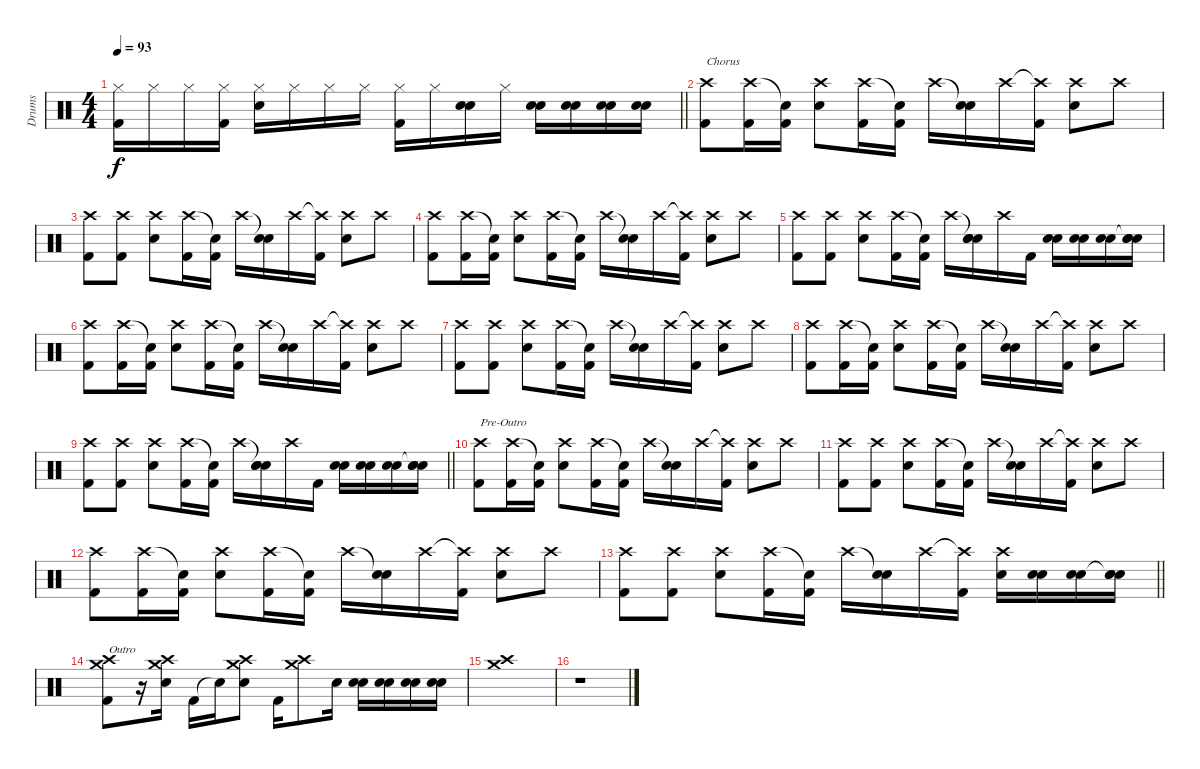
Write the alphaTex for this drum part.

\track ("Drums" "Drums") {instrument percussion}
\staff {score}
\articulation defaults
\ts (4 4)
\tempo 93
\clef neutral
\barLineRight lightlight
\ks c
("Hi-Hat (closed)" "Kick (hit) 2").16{dy f} "Hi-Hat (closed)".16 "Hi-Hat (closed)".16 ("Hi-Hat (closed)" "Kick (hit) 2").16 ("Hi-Hat (closed)" "Electric Snare (hit)").16 "Hi-Hat (closed)".16 "Hi-Hat (closed)".16 "Hi-Hat (closed)".16 ("Hi-Hat (closed)" "Kick (hit) 2").16 "Hi-Hat (closed)".16 ("Electric Snare (hit)" "Electric Snare (hit)").16 "Hi-Hat (closed)".16 ("Electric Snare (hit)" "Electric Snare (hit)").16 ("Electric Snare (hit)" "Electric Snare (hit)").16 ("Electric Snare (hit)" "Electric Snare (hit)").16 ("Electric Snare (hit)" "Electric Snare (hit)").16 |
("Crash high (hit)" "Kick (hit) 2").8{txt "Chorus"} ("Crash high (hit)" "Kick (hit) 2").16 ("Snare (hit)"{t} "Kick (hit) 2").16 ("Crash high (hit)" "Electric Snare (hit)").8 ("Crash high (hit)" "Kick (hit) 2").16 ("Snare (hit)"{t} "Kick (hit) 2").16 "Crash high (hit)".16 ("Snare (hit)"{t} "Electric Snare (hit)").16 "Crash high (hit)".16 ("Crash high (hit)"{t} "Kick (hit) 2").16 ("Crash high (hit)" "Electric Snare (hit)").8 "Crash high (hit)".8 |
("Crash high (hit)" "Kick (hit) 2").8 ("Crash high (hit)" "Kick (hit) 2").8 ("Crash high (hit)" "Electric Snare (hit)").8 ("Crash high (hit)" "Kick (hit) 2").16 ("Snare (hit)"{t} "Kick (hit) 2").16 "Crash high (hit)".16 ("Snare (hit)"{t} "Electric Snare (hit)").16 "Crash high (hit)".16 ("Crash high (hit)"{t} "Kick (hit) 2").16 ("Crash high (hit)" "Electric Snare (hit)").8 "Crash high (hit)".8 |
("Crash high (hit)" "Kick (hit) 2").8 ("Crash high (hit)" "Kick (hit) 2").16 ("Snare (hit)"{t} "Kick (hit) 2").16 ("Crash high (hit)" "Electric Snare (hit)").8 ("Crash high (hit)" "Kick (hit) 2").16 ("Snare (hit)"{t} "Kick (hit) 2").16 "Crash high (hit)".16 ("Snare (hit)"{t} "Electric Snare (hit)").16 "Crash high (hit)".16 ("Crash high (hit)"{t} "Kick (hit) 2").16 ("Crash high (hit)" "Electric Snare (hit)").8 "Crash high (hit)".8 |
("Crash high (hit)" "Kick (hit) 2").8 ("Crash high (hit)" "Kick (hit) 2").8 ("Crash high (hit)" "Electric Snare (hit)").8 ("Crash high (hit)" "Kick (hit) 2").16 ("Snare (hit)"{t} "Kick (hit) 2").16 "Crash high (hit)".16 ("Snare (hit)"{t} "Electric Snare (hit)" "Electric Snare (hit)").16 "Crash high (hit)".16 "Kick (hit) 2".16 ("Electric Snare (hit)" "Electric Snare (hit)").16 ("Electric Snare (hit)" "Electric Snare (hit)").16 ("Electric Snare (hit)" "Electric Snare (hit)").16 ("Snare (hit)"{t} "Electric Snare (hit)" "Electric Snare (hit)").16 |
("Crash high (hit)" "Kick (hit) 2").8 ("Crash high (hit)" "Kick (hit) 2").16 ("Snare (hit)"{t} "Kick (hit) 2").16 ("Crash high (hit)" "Electric Snare (hit)").8 ("Crash high (hit)" "Kick (hit) 2").16 ("Snare (hit)"{t} "Kick (hit) 2").16 "Crash high (hit)".16 ("Snare (hit)"{t} "Electric Snare (hit)").16 "Crash high (hit)".16 ("Crash high (hit)"{t} "Kick (hit) 2").16 ("Crash high (hit)" "Electric Snare (hit)").8 "Crash high (hit)".8 |
("Crash high (hit)" "Kick (hit) 2").8 ("Crash high (hit)" "Kick (hit) 2").8 ("Crash high (hit)" "Electric Snare (hit)").8 ("Crash high (hit)" "Kick (hit) 2").16 ("Snare (hit)"{t} "Kick (hit) 2").16 "Crash high (hit)".16 ("Snare (hit)"{t} "Electric Snare (hit)").16 "Crash high (hit)".16 ("Crash high (hit)"{t} "Kick (hit) 2").16 ("Crash high (hit)" "Electric Snare (hit)").8 "Crash high (hit)".8 |
("Crash high (hit)" "Kick (hit) 2").8 ("Crash high (hit)" "Kick (hit) 2").16 ("Snare (hit)"{t} "Kick (hit) 2").16 ("Crash high (hit)" "Electric Snare (hit)").8 ("Crash high (hit)" "Kick (hit) 2").16 ("Snare (hit)"{t} "Kick (hit) 2").16 "Crash high (hit)".16 ("Snare (hit)"{t} "Electric Snare (hit)").16 "Crash high (hit)".16 ("Crash high (hit)"{t} "Kick (hit) 2").16 ("Crash high (hit)" "Electric Snare (hit)").8 "Crash high (hit)".8 |
\barLineRight lightlight
("Crash high (hit)" "Kick (hit) 2").8 ("Crash high (hit)" "Kick (hit) 2").8 ("Crash high (hit)" "Electric Snare (hit)").8 ("Crash high (hit)" "Kick (hit) 2").16 ("Snare (hit)"{t} "Kick (hit) 2").16 "Crash high (hit)".16 ("Snare (hit)"{t} "Electric Snare (hit)" "Electric Snare (hit)").16 "Crash high (hit)".16 "Kick (hit) 2".16 ("Electric Snare (hit)" "Electric Snare (hit)").16 ("Electric Snare (hit)" "Electric Snare (hit)").16 ("Electric Snare (hit)" "Electric Snare (hit)").16 ("Snare (hit)"{t} "Electric Snare (hit)" "Electric Snare (hit)").16 |
("Crash high (hit)" "Kick (hit) 2").8{txt "Pre-Outro"} ("Crash high (hit)" "Kick (hit) 2").16 ("Snare (hit)"{t} "Kick (hit) 2").16 ("Crash high (hit)" "Electric Snare (hit)").8 ("Crash high (hit)" "Kick (hit) 2").16 ("Snare (hit)"{t} "Kick (hit) 2").16 "Crash high (hit)".16 ("Snare (hit)"{t} "Electric Snare (hit)").16 "Crash high (hit)".16 ("Crash high (hit)"{t} "Kick (hit) 2").16 ("Crash high (hit)" "Electric Snare (hit)").8 "Crash high (hit)".8 |
("Crash high (hit)" "Kick (hit) 2").8 ("Crash high (hit)" "Kick (hit) 2").8 ("Crash high (hit)" "Electric Snare (hit)").8 ("Crash high (hit)" "Kick (hit) 2").16 ("Snare (hit)"{t} "Kick (hit) 2").16 "Crash high (hit)".16 ("Snare (hit)"{t} "Electric Snare (hit)").16 "Crash high (hit)".16 ("Crash high (hit)"{t} "Kick (hit) 2").16 ("Crash high (hit)" "Electric Snare (hit)").8 "Crash high (hit)".8 |
("Crash high (hit)" "Kick (hit) 2").8 ("Crash high (hit)" "Kick (hit) 2").16 ("Snare (hit)"{t} "Kick (hit) 2").16 ("Crash high (hit)" "Electric Snare (hit)").8 ("Crash high (hit)" "Kick (hit) 2").16 ("Snare (hit)"{t} "Kick (hit) 2").16 "Crash high (hit)".16 ("Snare (hit)"{t} "Electric Snare (hit)").16 "Crash high (hit)".16 ("Crash high (hit)"{t} "Kick (hit) 2").16 ("Crash high (hit)" "Electric Snare (hit)").8 "Crash high (hit)".8 |
\barLineRight lightlight
("Crash high (hit)" "Kick (hit) 2").8 ("Crash high (hit)" "Kick (hit) 2").8 ("Crash high (hit)" "Electric Snare (hit)").8 ("Crash high (hit)" "Kick (hit) 2").16 ("Snare (hit)"{t} "Kick (hit) 2").16 "Crash high (hit)".16 ("Snare (hit)"{t} "Electric Snare (hit)").16 "Crash high (hit)".16 ("Crash high (hit)"{t} "Kick (hit) 2").16 ("Crash high (hit)" "Electric Snare (hit)").16 ("Electric Snare (hit)" "Electric Snare (hit)").16 ("Electric Snare (hit)" "Electric Snare (hit)").16 ("Snare (hit)"{t} "Electric Snare (hit)" "Electric Snare (hit)").16 |
("Crash high (hit)" "Crash medium (hit)" "Kick (hit) 2").8{txt "Outro"} r.16 ("Crash high (hit)" "Crash medium (hit)" "Electric Snare (hit)").16 "Kick (hit) 2".16 "Snare (hit)"{t}.16 ("Crash high (hit)" "Crash medium (hit)" "Electric Snare (hit)").8 "Kick (hit) 2".16 ("Crash high (hit)" "Crash medium (hit)").8 "Electric Snare (hit)".16 ("Electric Snare (hit)" "Electric Snare (hit)").16 ("Electric Snare (hit)" "Electric Snare (hit)").16 ("Electric Snare (hit)" "Electric Snare (hit)").16 ("Electric Snare (hit)" "Electric Snare (hit)").16 |
("Crash high (hit)" "Crash medium (hit)").1 |
r.1
